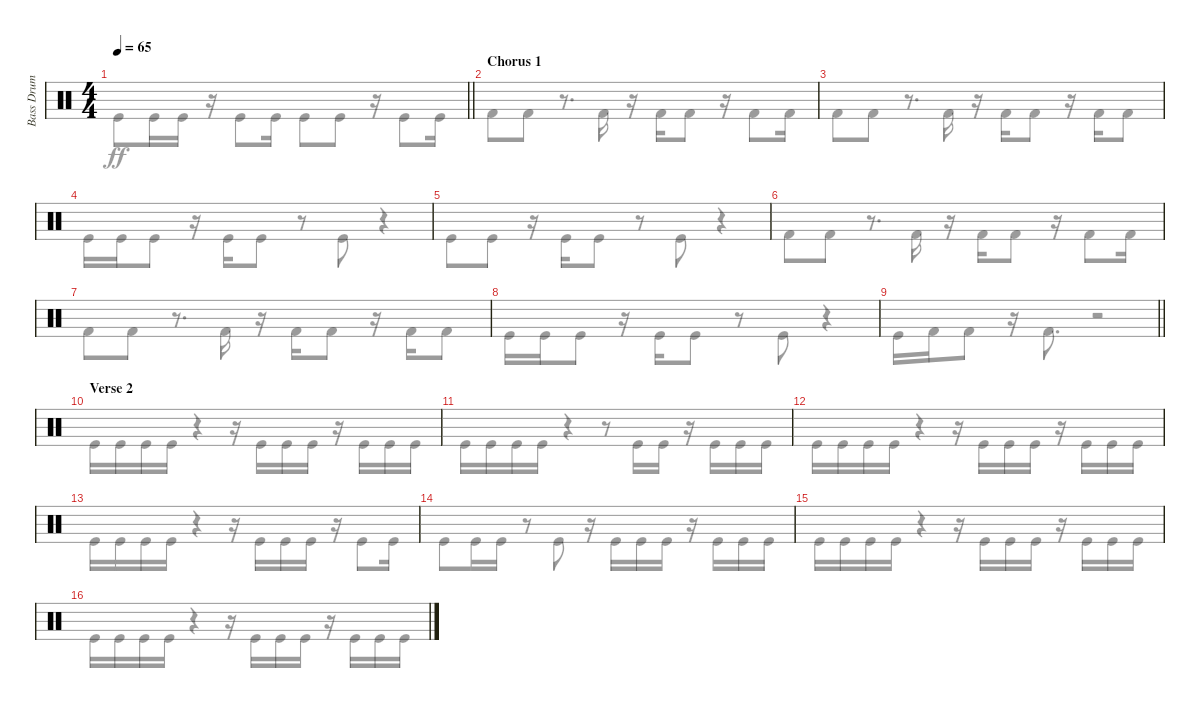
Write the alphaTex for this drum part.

\track ("Bass Drum" "Bass Drum") {instrument percussion}
\staff {score}
\articulation defaults
\voice
\ts (4 4)
\tempo 65
\clef neutral
\barLineRight lightlight
\ks c
|
\section ("" "Chorus 1")
|
|
|
|
|
|
|
\barLineRight lightlight
|
\section ("" "Verse 2")
|
|
|
|
|
|
\voice
\clef neutral
\barLineRight lightlight
\ks c "Kick (hit)".8{dy ff} "Kick (hit)".16 "Kick (hit)".16
r.16 "Kick (hit)".8 "Kick (hit)".16 "Kick (hit)".8 "Kick (hit)".8 r.16 "Kick (hit)".8 "Kick (hit)".16 |
"Kick (hit) 2".8 "Kick (hit) 2".8 r.8{d} "Kick (hit) 2".16 r.16 "Kick (hit) 2".16 "Kick (hit) 2".8 r.16 "Kick (hit) 2".8 "Kick (hit) 2".16 |
"Kick (hit) 2".8 "Kick (hit) 2".8 r.8{d} "Kick (hit) 2".16 r.16 "Kick (hit) 2".16 "Kick (hit) 2".8 r.16 "Kick (hit) 2".16 "Kick (hit) 2".8 |
"Kick (hit)".16 "Kick (hit)".16 "Kick (hit)".8 r.16 "Kick (hit)".16 "Kick (hit)".8 r.8 "Kick (hit)".8 r.4 |
"Kick (hit)".8 "Kick (hit)".8 r.16 "Kick (hit)".16 "Kick (hit)".8 r.8 "Kick (hit)".8 r.4 |
"Kick (hit) 2".8 "Kick (hit) 2".8 r.8{d} "Kick (hit) 2".16 r.16 "Kick (hit) 2".16 "Kick (hit) 2".8 r.16 "Kick (hit) 2".8 "Kick (hit) 2".16 |
"Kick (hit) 2".8 "Kick (hit) 2".8 r.8{d} "Kick (hit) 2".16 r.16 "Kick (hit) 2".16 "Kick (hit) 2".8 r.16 "Kick (hit) 2".16 "Kick (hit) 2".8 |
"Kick (hit)".16 "Kick (hit)".16 "Kick (hit)".8 r.16 "Kick (hit)".16 "Kick (hit)".8 r.8 "Kick (hit)".8 r.4 |
\barLineRight lightlight "Kick (hit)".16 "Kick (hit) 2".16 "Kick (hit) 2".8
r.16 "Kick (hit) 2".8{d} r.2 |
"Kick (hit)".16 "Kick (hit)".16 "Kick (hit)".16 "Kick (hit)".16 r.4 r.16 "Kick (hit)".16 "Kick (hit)".16 "Kick (hit)".16 r.16 "Kick (hit)".16 "Kick (hit)".16 "Kick (hit)".16 |
"Kick (hit)".16 "Kick (hit)".16 "Kick (hit)".16 "Kick (hit)".16 r.4 r.8 "Kick (hit)".16 "Kick (hit)".16 r.16 "Kick (hit)".16 "Kick (hit)".16 "Kick (hit)".16 |
"Kick (hit)".16 "Kick (hit)".16 "Kick (hit)".16 "Kick (hit)".16 r.4 r.16 "Kick (hit)".16 "Kick (hit)".16 "Kick (hit)".16 r.16 "Kick (hit)".16 "Kick (hit)".16 "Kick (hit)".16 |
"Kick (hit)".16 "Kick (hit)".16 "Kick (hit)".16 "Kick (hit)".16 r.4 r.16 "Kick (hit)".16 "Kick (hit)".16 "Kick (hit)".16 r.16 "Kick (hit)".8 "Kick (hit)".16 |
"Kick (hit)".8 "Kick (hit)".16 "Kick (hit)".16 r.8 "Kick (hit)".8 r.16 "Kick (hit)".16 "Kick (hit)".16 "Kick (hit)".16 r.16 "Kick (hit)".16 "Kick (hit)".16 "Kick (hit)".16 |
"Kick (hit)".16 "Kick (hit)".16 "Kick (hit)".16 "Kick (hit)".16 r.4 r.16 "Kick (hit)".16 "Kick (hit)".16 "Kick (hit)".16 r.16 "Kick (hit)".16 "Kick (hit)".16 "Kick (hit)".16 |
"Kick (hit)".16 "Kick (hit)".16 "Kick (hit)".16 "Kick (hit)".16 r.4 r.16 "Kick (hit)".16 "Kick (hit)".16 "Kick (hit)".16 r.16 "Kick (hit)".16 "Kick (hit)".16 "Kick (hit)".16
